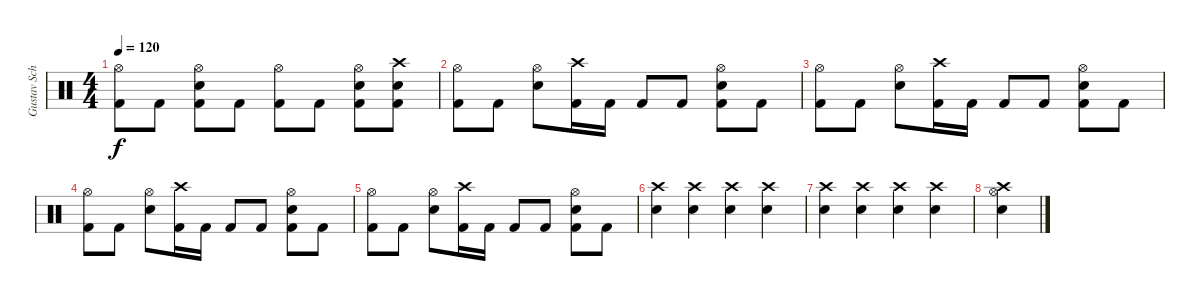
\track ("Gustav Schäfer" "Gustav Sch") {instrument percussion}
\staff {score}
\articulation defaults
\ts (4 4)
\tempo 120
\clef neutral
\ks c
("Hi-Hat (open)" "Kick (hit) 2").8{dy f} "Kick (hit) 2".8 ("Hi-Hat (open)" "Electric Snare (hit)" "Kick (hit) 2").8 "Kick (hit) 2".8 ("Hi-Hat (open)" "Kick (hit) 2").8 "Kick (hit) 2".8 ("Hi-Hat (open)" "Electric Snare (hit)" "Kick (hit) 2").8 ("Crash high (hit)" "Electric Snare (hit)" "Kick (hit) 2").8 |
("Hi-Hat (open)" "Kick (hit) 2").8 "Kick (hit) 2".8 ("Hi-Hat (open)" "Electric Snare (hit)").8 ("Crash high (hit)" "Kick (hit) 2").16 "Kick (hit) 2".16 "Kick (hit) 2".8 "Kick (hit) 2".8 ("Hi-Hat (open)" "Electric Snare (hit)" "Kick (hit) 2").8 "Kick (hit) 2".8 |
("Hi-Hat (open)" "Kick (hit) 2").8 "Kick (hit) 2".8 ("Hi-Hat (open)" "Electric Snare (hit)").8 ("Crash high (hit)" "Kick (hit) 2").16 "Kick (hit) 2".16 "Kick (hit) 2".8 "Kick (hit) 2".8 ("Hi-Hat (open)" "Electric Snare (hit)" "Kick (hit) 2").8 "Kick (hit) 2".8 |
("Hi-Hat (open)" "Kick (hit) 2").8 "Kick (hit) 2".8 ("Hi-Hat (open)" "Electric Snare (hit)").8 ("Crash high (hit)" "Kick (hit) 2").16 "Kick (hit) 2".16 "Kick (hit) 2".8 "Kick (hit) 2".8 ("Hi-Hat (open)" "Electric Snare (hit)" "Kick (hit) 2").8 "Kick (hit) 2".8 |
("Hi-Hat (open)" "Kick (hit) 2").8 "Kick (hit) 2".8 ("Hi-Hat (open)" "Electric Snare (hit)").8 ("Crash high (hit)" "Kick (hit) 2").16 "Kick (hit) 2".16 "Kick (hit) 2".8 "Kick (hit) 2".8 ("Hi-Hat (open)" "Electric Snare (hit)" "Kick (hit) 2").8 "Kick (hit) 2".8 |
("Crash high (hit)" "Electric Snare (hit)").4 ("Crash high (hit)" "Electric Snare (hit)").4 ("Crash high (hit)" "Electric Snare (hit)").4 ("Crash high (hit)" "Electric Snare (hit)").4 |
("Crash high (hit)" "Electric Snare (hit)").4 ("Crash high (hit)" "Electric Snare (hit)").4 ("Crash high (hit)" "Electric Snare (hit)").4 ("Crash high (hit)" "Electric Snare (hit)").4 |
("Hi-Hat (open)" "Electric Snare (hit)" "Crash high (hit)").4
